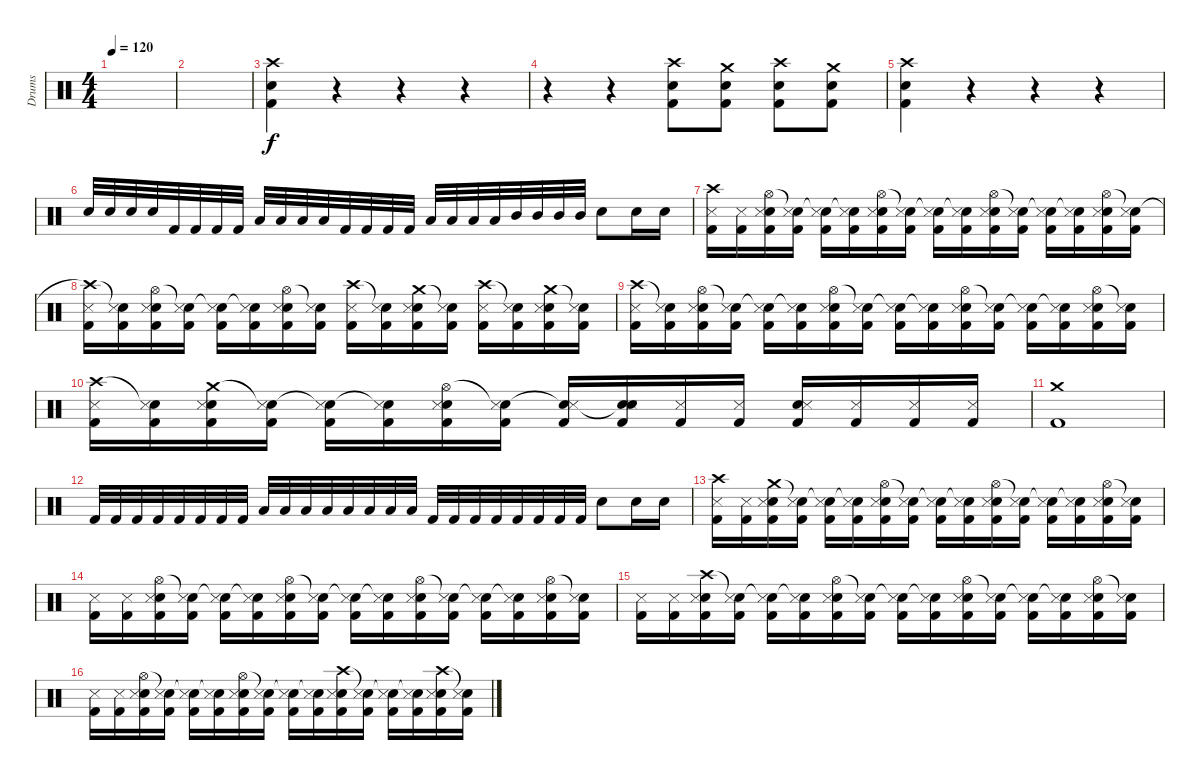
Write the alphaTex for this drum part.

\track ("Drums" "Drums") {instrument percussion}
\staff {score}
\articulation defaults
\ts (4 4)
\tempo 120
\clef neutral
\ks c
|
|
("Crash high (hit)" "Kick (hit) 2" "Snare (hit) 2").4 r.4 r.4 r.4 |
r.4 r.4 ("Crash high (hit)" "Kick (hit) 2" "Snare (hit) 2").8 ("Crash medium (hit)" "Kick (hit) 2" "Snare (hit) 2").8 ("Crash high (hit)" "Kick (hit) 2" "Snare (hit) 2").8 ("Crash medium (hit)" "Kick (hit) 2" "Snare (hit) 2").8 |
("Crash high (hit)" "Kick (hit) 2" "Snare (hit) 2").4 r.4 r.4 r.4 |
"Electric Snare (hit)".32 "Electric Snare (hit)".32 "Electric Snare (hit)".32 "Electric Snare (hit)".32 "Kick (hit) 2".32 "Kick (hit) 2".32 "Kick (hit) 2".32 "Kick (hit) 2".32 "Low Tom (hit)".32 "Low Tom (hit)".32 "Low Tom (hit)".32 "Low Tom (hit)".32 "Kick (hit) 2".32 "Kick (hit) 2".32 "Kick (hit) 2".32 "Kick (hit) 2".32 "Low Tom (hit)".32 "Low Tom (hit)".32 "Low Tom (hit)".32 "Low Tom (hit)".32 "Mid Tom (hit)".32 "Mid Tom (hit)".32 "Mid Tom (hit)".32 "Mid Tom (hit)".32 "Electric Snare (hit)".8 "Electric Snare (hit)".16 "Electric Snare (hit)".16 |
("Crash high (hit)" "Kick (hit) 2" "Snare (side stick) 3").16 ("Kick (hit) 2" "Snare (side stick) 3").16 ("Hi-Hat (open)" "Electric Snare (hit)" "Kick (hit) 2" "Snare (side stick) 3").16 ("Snare (hit)"{t} "Kick (hit) 2" "Snare (side stick) 3").16 ("Snare (hit)"{t} "Kick (hit) 2" "Snare (side stick) 3").16 ("Snare (hit)"{t} "Kick (hit) 2" "Snare (side stick) 3").16 ("Hi-Hat (open)" "Electric Snare (hit)" "Kick (hit) 2" "Snare (side stick) 3").16 ("Snare (hit)"{t} "Kick (hit) 2" "Snare (side stick) 3").16 ("Snare (hit)"{t} "Kick (hit) 2" "Snare (side stick) 3").16 ("Snare (hit)"{t} "Kick (hit) 2" "Snare (side stick) 3").16 ("Hi-Hat (open)" "Electric Snare (hit)" "Kick (hit) 2" "Snare (side stick) 3").16 ("Snare (hit)"{t} "Kick (hit) 2" "Snare (side stick) 3").16 ("Snare (hit)"{t} "Kick (hit) 2" "Snare (side stick) 3").16 ("Snare (hit)"{t} "Kick (hit) 2" "Snare (side stick) 3").16 ("Hi-Hat (open)" "Electric Snare (hit)" "Kick (hit) 2" "Snare (side stick) 3").16 ("Snare (hit)"{t} "Kick (hit) 2" "Snare (side stick) 3").16 |
("Crash high (hit)"{t} "Kick (hit) 2" "Snare (side stick) 3").16 ("Snare (hit)"{t} "Kick (hit) 2" "Snare (side stick) 3").16 ("Hi-Hat (open)" "Electric Snare (hit)" "Kick (hit) 2" "Snare (side stick) 3").16 ("Snare (hit)"{t} "Kick (hit) 2" "Snare (side stick) 3").16 ("Snare (hit)"{t} "Kick (hit) 2" "Snare (side stick) 3").16 ("Snare (hit)"{t} "Kick (hit) 2" "Snare (side stick) 3").16 ("Hi-Hat (open)" "Electric Snare (hit)" "Kick (hit) 2" "Snare (side stick) 3").16 ("Snare (hit)"{t} "Kick (hit) 2" "Snare (side stick) 3").16 ("Crash high (hit)" "Kick (hit) 2" "Snare (side stick) 3").16 ("Snare (hit)"{t} "Kick (hit) 2" "Snare (side stick) 3").16 ("Crash medium (hit)" "Electric Snare (hit)" "Kick (hit) 2" "Snare (side stick) 3").16 ("Snare (hit)"{t} "Kick (hit) 2" "Snare (side stick) 3").16 ("Crash high (hit)" "Kick (hit) 2" "Snare (side stick) 3").16 ("Snare (hit)"{t} "Kick (hit) 2" "Snare (side stick) 3").16 ("Crash medium (hit)" "Electric Snare (hit)" "Kick (hit) 2" "Snare (side stick) 3").16 ("Snare (hit)"{t} "Kick (hit) 2" "Snare (side stick) 3").16 |
("Crash high (hit)" "Kick (hit) 2" "Snare (side stick) 3").16 ("Snare (hit)"{t} "Kick (hit) 2" "Snare (side stick) 3").16 ("Hi-Hat (open)" "Electric Snare (hit)" "Kick (hit) 2" "Snare (side stick) 3").16 ("Snare (hit)"{t} "Kick (hit) 2" "Snare (side stick) 3").16 ("Snare (hit)"{t} "Kick (hit) 2" "Snare (side stick) 3").16 ("Snare (hit)"{t} "Kick (hit) 2" "Snare (side stick) 3").16 ("Hi-Hat (open)" "Electric Snare (hit)" "Kick (hit) 2" "Snare (side stick) 3").16 ("Snare (hit)"{t} "Kick (hit) 2" "Snare (side stick) 3").16 ("Snare (hit)"{t} "Kick (hit) 2" "Snare (side stick) 3").16 ("Snare (hit)"{t} "Kick (hit) 2" "Snare (side stick) 3").16 ("Hi-Hat (open)" "Electric Snare (hit)" "Kick (hit) 2" "Snare (side stick) 3").16 ("Snare (hit)"{t} "Kick (hit) 2" "Snare (side stick) 3").16 ("Snare (hit)"{t} "Kick (hit) 2" "Snare (side stick) 3").16 ("Snare (hit)"{t} "Kick (hit) 2" "Snare (side stick) 3").16 ("Hi-Hat (open)" "Electric Snare (hit)" "Kick (hit) 2" "Snare (side stick) 3").16 ("Snare (hit)"{t} "Kick (hit) 2" "Snare (side stick) 3").16 |
("Crash high (hit)" "Kick (hit) 2" "Snare (side stick) 3").16 ("Snare (hit)"{t} "Kick (hit) 2" "Snare (side stick) 3").16 ("Crash medium (hit)" "Electric Snare (hit)" "Kick (hit) 2" "Snare (side stick) 3").16 ("Snare (hit)"{t} "Kick (hit) 2" "Snare (side stick) 3").16 ("Snare (hit)"{t} "Kick (hit) 2" "Snare (side stick) 3").16 ("Snare (hit)"{t} "Kick (hit) 2" "Snare (side stick) 3").16 ("Hi-Hat (open)" "Electric Snare (hit)" "Kick (hit) 2" "Snare (side stick) 3").16 ("Snare (hit)"{t} "Kick (hit) 2" "Snare (side stick) 3").16 ("Snare (hit)"{t} "Kick (hit) 2" "Snare (side stick) 3").16 ("Snare (hit)"{t} "Electric Snare (hit)" "Kick (hit) 2" "Snare (side stick) 3").16 ("Kick (hit) 2" "Snare (side stick) 3").16 ("Kick (hit) 2" "Snare (side stick) 3").16 ("Electric Snare (hit)" "Kick (hit) 2" "Snare (side stick) 3").16 ("Kick (hit) 2" "Snare (side stick) 3").16 ("Kick (hit) 2" "Snare (side stick) 3").16 ("Kick (hit) 2" "Snare (side stick) 3").16 |
("Crash medium (hit)" "Kick (hit) 2").1 |
"Kick (hit) 2".32 "Kick (hit) 2".32 "Kick (hit) 2".32 "Kick (hit) 2".32 "Kick (hit) 2".32 "Kick (hit) 2".32 "Kick (hit) 2".32 "Kick (hit) 2".32 "Low Tom (hit)".32 "Low Tom (hit)".32 "Low Tom (hit)".32 "Low Tom (hit)".32 "Low Tom (hit)".32 "Low Tom (hit)".32 "Low Tom (hit)".32 "Low Tom (hit)".32 "Kick (hit) 2".32 "Kick (hit) 2".32 "Kick (hit) 2".32 "Kick (hit) 2".32 "Kick (hit) 2".32 "Kick (hit) 2".32 "Kick (hit) 2".32 "Kick (hit) 2".32 "Electric Snare (hit)".8 "Electric Snare (hit)".16 "Electric Snare (hit)".16 |
("Crash high (hit)" "Kick (hit) 2" "Snare (side stick) 3").16 ("Kick (hit) 2" "Snare (side stick) 3").16 ("Crash medium (hit)" "Electric Snare (hit)" "Kick (hit) 2" "Snare (side stick) 3").16 ("Snare (hit)"{t} "Kick (hit) 2" "Snare (side stick) 3").16 ("Snare (hit)"{t} "Kick (hit) 2" "Snare (side stick) 3").16 ("Snare (hit)"{t} "Kick (hit) 2" "Snare (side stick) 3").16 ("Hi-Hat (open)" "Electric Snare (hit)" "Kick (hit) 2" "Snare (side stick) 3").16 ("Snare (hit)"{t} "Kick (hit) 2" "Snare (side stick) 3").16 ("Snare (hit)"{t} "Kick (hit) 2" "Snare (side stick) 3").16 ("Snare (hit)"{t} "Kick (hit) 2" "Snare (side stick) 3").16 ("Hi-Hat (open)" "Electric Snare (hit)" "Kick (hit) 2" "Snare (side stick) 3").16 ("Snare (hit)"{t} "Kick (hit) 2" "Snare (side stick) 3").16 ("Snare (hit)"{t} "Kick (hit) 2" "Snare (side stick) 3").16 ("Snare (hit)"{t} "Kick (hit) 2" "Snare (side stick) 3").16 ("Hi-Hat (open)" "Electric Snare (hit)" "Kick (hit) 2" "Snare (side stick) 3").16 ("Snare (hit)"{t} "Kick (hit) 2" "Snare (side stick) 3").16 |
("Kick (hit) 2" "Snare (side stick) 3").16 ("Kick (hit) 2" "Snare (side stick) 3").16 ("Hi-Hat (open)" "Electric Snare (hit)" "Kick (hit) 2" "Snare (side stick) 3").16 ("Snare (hit)"{t} "Kick (hit) 2" "Snare (side stick) 3").16 ("Snare (hit)"{t} "Kick (hit) 2" "Snare (side stick) 3").16 ("Snare (hit)"{t} "Kick (hit) 2" "Snare (side stick) 3").16 ("Hi-Hat (open)" "Electric Snare (hit)" "Kick (hit) 2" "Snare (side stick) 3").16 ("Snare (hit)"{t} "Kick (hit) 2" "Snare (side stick) 3").16 ("Snare (hit)"{t} "Kick (hit) 2" "Snare (side stick) 3").16 ("Snare (hit)"{t} "Kick (hit) 2" "Snare (side stick) 3").16 ("Hi-Hat (open)" "Electric Snare (hit)" "Kick (hit) 2" "Snare (side stick) 3").16 ("Snare (hit)"{t} "Kick (hit) 2" "Snare (side stick) 3").16 ("Snare (hit)"{t} "Kick (hit) 2" "Snare (side stick) 3").16 ("Snare (hit)"{t} "Kick (hit) 2" "Snare (side stick) 3").16 ("Hi-Hat (open)" "Electric Snare (hit)" "Kick (hit) 2" "Snare (side stick) 3").16 ("Snare (hit)"{t} "Kick (hit) 2" "Snare (side stick) 3").16 |
("Kick (hit) 2" "Snare (side stick) 3").16 ("Kick (hit) 2" "Snare (side stick) 3").16 ("Crash high (hit)" "Electric Snare (hit)" "Kick (hit) 2" "Snare (side stick) 3").16 ("Snare (hit)"{t} "Kick (hit) 2" "Snare (side stick) 3").16 ("Snare (hit)"{t} "Kick (hit) 2" "Snare (side stick) 3").16 ("Snare (hit)"{t} "Kick (hit) 2" "Snare (side stick) 3").16 ("Hi-Hat (open)" "Electric Snare (hit)" "Kick (hit) 2" "Snare (side stick) 3").16 ("Snare (hit)"{t} "Kick (hit) 2" "Snare (side stick) 3").16 ("Snare (hit)"{t} "Kick (hit) 2" "Snare (side stick) 3").16 ("Snare (hit)"{t} "Kick (hit) 2" "Snare (side stick) 3").16 ("Hi-Hat (open)" "Electric Snare (hit)" "Kick (hit) 2" "Snare (side stick) 3").16 ("Snare (hit)"{t} "Kick (hit) 2" "Snare (side stick) 3").16 ("Snare (hit)"{t} "Kick (hit) 2" "Snare (side stick) 3").16 ("Snare (hit)"{t} "Kick (hit) 2" "Snare (side stick) 3").16 ("Hi-Hat (open)" "Electric Snare (hit)" "Kick (hit) 2" "Snare (side stick) 3").16 ("Snare (hit)"{t} "Kick (hit) 2" "Snare (side stick) 3").16 |
("Kick (hit) 2" "Snare (side stick) 3").16 ("Kick (hit) 2" "Snare (side stick) 3").16 ("Hi-Hat (open)" "Electric Snare (hit)" "Kick (hit) 2" "Snare (side stick) 3").16 ("Snare (hit)"{t} "Kick (hit) 2" "Snare (side stick) 3").16 ("Snare (hit)"{t} "Kick (hit) 2" "Snare (side stick) 3").16 ("Snare (hit)"{t} "Kick (hit) 2" "Snare (side stick) 3").16 ("Hi-Hat (open)" "Electric Snare (hit)" "Kick (hit) 2" "Snare (side stick) 3").16 ("Snare (hit)"{t} "Kick (hit) 2" "Snare (side stick) 3").16 ("Snare (hit)"{t} "Kick (hit) 2" "Snare (side stick) 3").16 ("Snare (hit)"{t} "Kick (hit) 2" "Snare (side stick) 3").16 ("Crash high (hit)" "Electric Snare (hit)" "Kick (hit) 2" "Snare (side stick) 3").16 ("Snare (hit)"{t} "Kick (hit) 2" "Snare (side stick) 3").16 ("Snare (hit)"{t} "Kick (hit) 2" "Snare (side stick) 3").16 ("Snare (hit)"{t} "Kick (hit) 2" "Snare (side stick) 3").16 ("Crash high (hit)" "Electric Snare (hit)" "Kick (hit) 2" "Snare (side stick) 3").16 ("Snare (hit)"{t} "Kick (hit) 2" "Snare (side stick) 3").16
